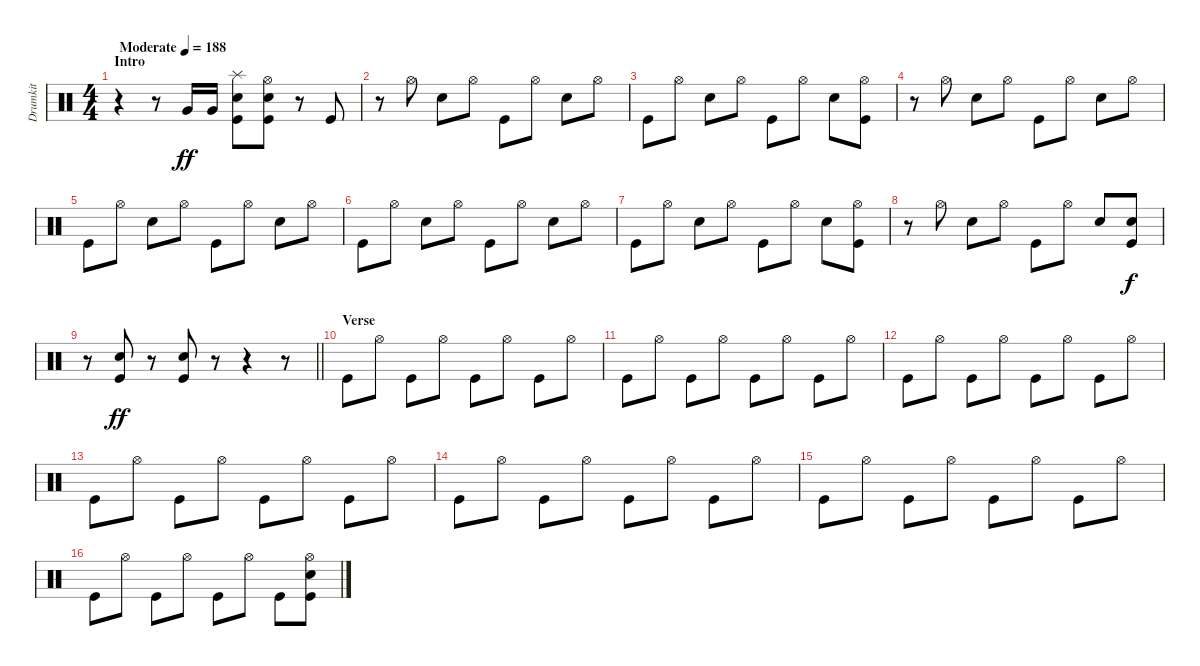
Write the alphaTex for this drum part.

\track ("Drumkit" "Drumkit") {instrument percussion}
\staff {score}
\articulation defaults
\ts (4 4)
\section ("" "Intro")
\tempo (188 "Moderate")
\clef neutral
\ks c
r.4{dy ff} r.8 "Very Low Tom (hit)".16 "Very Low Tom (hit)".16 ("Kick (hit)" "Snare (hit) 2" "Splash (hit)").8 ("Kick (hit)" "Snare (hit) 2" "Hi-Hat (open)").8 r.8 "Kick (hit)".8 |
r.8 "Hi-Hat (open)".8 "Snare (hit) 2".8 "Hi-Hat (open)".8 "Kick (hit)".8 "Hi-Hat (open)".8 "Snare (hit) 2".8 "Hi-Hat (open)".8 |
"Kick (hit)".8 "Hi-Hat (open)".8 "Snare (hit) 2".8 "Hi-Hat (open)".8 "Kick (hit)".8 "Hi-Hat (open)".8 "Snare (hit) 2".8 ("Hi-Hat (open)" "Kick (hit)").8 |
r.8 "Hi-Hat (open)".8 "Snare (hit) 2".8 "Hi-Hat (open)".8 "Kick (hit)".8 "Hi-Hat (open)".8 "Snare (hit) 2".8 "Hi-Hat (open)".8 |
"Kick (hit)".8 "Hi-Hat (open)".8 "Snare (hit) 2".8 "Hi-Hat (open)".8 "Kick (hit)".8 "Hi-Hat (open)".8 "Snare (hit) 2".8 "Hi-Hat (open)".8 |
"Kick (hit)".8 "Hi-Hat (open)".8 "Snare (hit) 2".8 "Hi-Hat (open)".8 "Kick (hit)".8 "Hi-Hat (open)".8 "Snare (hit) 2".8 "Hi-Hat (open)".8 |
"Kick (hit)".8 "Hi-Hat (open)".8 "Snare (hit) 2".8 "Hi-Hat (open)".8 "Kick (hit)".8 "Hi-Hat (open)".8 "Snare (hit) 2".8 ("Hi-Hat (open)" "Kick (hit)").8 |
r.8 "Hi-Hat (open)".8 "Snare (hit) 2".8 "Hi-Hat (open)".8 "Kick (hit)".8 "Hi-Hat (open)".8 "Snare (hit) 2".8 ("Kick (hit)" "Snare (hit) 2").8{dy f} |
\barLineRight lightlight
r.8 ("Kick (hit)" "Snare (hit) 2").8{dy ff} r.8 ("Kick (hit)" "Snare (hit) 2").8 r.8 r.4 r.8 |
\section ("" "Verse")
"Kick (hit)".8 "Hi-Hat (open)".8 "Kick (hit)".8 "Hi-Hat (open)".8 "Kick (hit)".8 "Hi-Hat (open)".8 "Kick (hit)".8 "Hi-Hat (open)".8 |
"Kick (hit)".8 "Hi-Hat (open)".8 "Kick (hit)".8 "Hi-Hat (open)".8 "Kick (hit)".8 "Hi-Hat (open)".8 "Kick (hit)".8 "Hi-Hat (open)".8 |
"Kick (hit)".8 "Hi-Hat (open)".8 "Kick (hit)".8 "Hi-Hat (open)".8 "Kick (hit)".8 "Hi-Hat (open)".8 "Kick (hit)".8 "Hi-Hat (open)".8 |
"Kick (hit)".8 "Hi-Hat (open)".8 "Kick (hit)".8 "Hi-Hat (open)".8 "Kick (hit)".8 "Hi-Hat (open)".8 "Kick (hit)".8 "Hi-Hat (open)".8 |
"Kick (hit)".8 "Hi-Hat (open)".8 "Kick (hit)".8 "Hi-Hat (open)".8 "Kick (hit)".8 "Hi-Hat (open)".8 "Kick (hit)".8 "Hi-Hat (open)".8 |
"Kick (hit)".8 "Hi-Hat (open)".8 "Kick (hit)".8 "Hi-Hat (open)".8 "Kick (hit)".8 "Hi-Hat (open)".8 "Kick (hit)".8 "Hi-Hat (open)".8 |
"Kick (hit)".8 "Hi-Hat (open)".8 "Kick (hit)".8 "Hi-Hat (open)".8 "Kick (hit)".8 "Hi-Hat (open)".8 "Kick (hit)".8 ("Hi-Hat (open)" "Kick (hit)" "Snare (hit) 2").8
